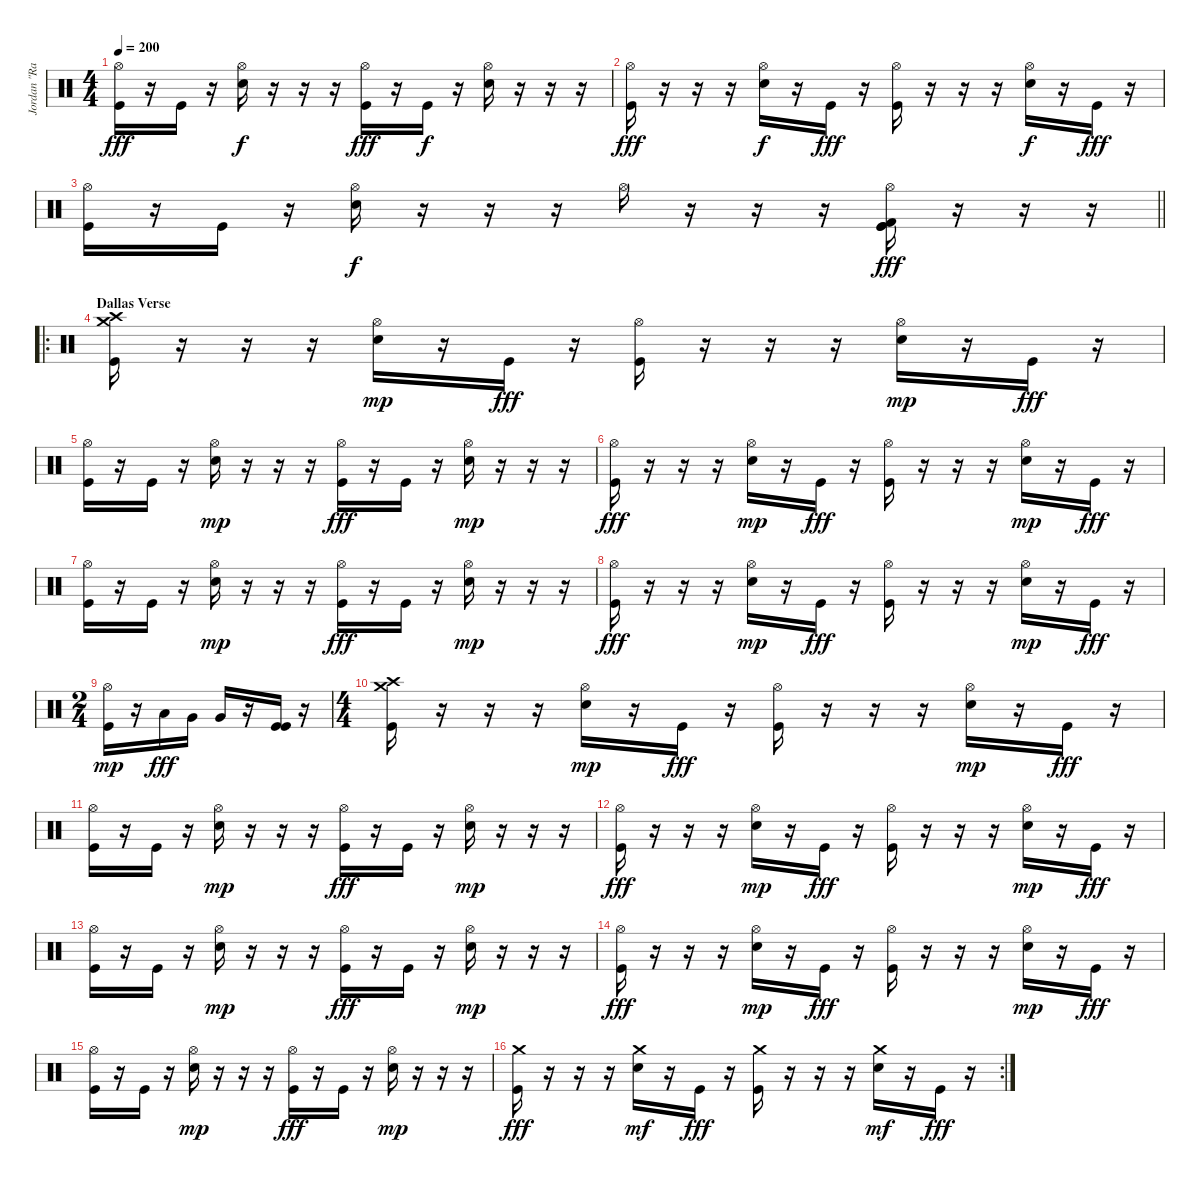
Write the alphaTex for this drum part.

\track ("Jordan \"Ratbeard\" Hastings" "Jordan \"Ra") {instrument percussion}
\staff {score}
\articulation defaults
\ts (4 4)
\tempo 200
\clef neutral
\ks c
("Hi-Hat (open)" "Kick (hit)").16{dy fff} r.16 "Kick (hit)".16 r.16 ("Hi-Hat (open)" "Electric Snare (hit)").16{dy f} r.16 r.16 r.16 ("Hi-Hat (open)" "Kick (hit)").16{dy fff} r.16 "Kick (hit)".16{dy f} r.16 ("Hi-Hat (open)" "Electric Snare (hit)").16 r.16 r.16 r.16 |
("Hi-Hat (open)" "Kick (hit)").16{dy fff} r.16 r.16 r.16 ("Hi-Hat (open)" "Electric Snare (hit)").16{dy f} r.16 "Kick (hit)".16{dy fff} r.16 ("Hi-Hat (open)" "Kick (hit)").16 r.16 r.16 r.16 ("Hi-Hat (open)" "Electric Snare (hit)").16{dy f} r.16 "Kick (hit)".16{dy fff} r.16 |
\barLineRight lightlight
("Hi-Hat (open)" "Kick (hit)").16 r.16 "Kick (hit)".16 r.16 ("Hi-Hat (open)" "Electric Snare (hit)").16{dy f} r.16 r.16 r.16 "Hi-Hat (open)".16 r.16 r.16 r.16 ("Hi-Hat (open)" "Kick (hit) 2" "Kick (hit)" "Kick (hit)").16{dy fff} r.16 r.16 r.16 |
\ro
\section ("" "Dallas Verse")
("Crash high (hit)" "Crash medium (hit)" "Kick (hit)").16 r.16 r.16 r.16 ("Hi-Hat (open)" "Electric Snare (hit)").16{dy mp} r.16 "Kick (hit)".16{dy fff} r.16 ("Hi-Hat (open)" "Kick (hit)").16 r.16 r.16 r.16 ("Hi-Hat (open)" "Electric Snare (hit)").16{dy mp} r.16 "Kick (hit)".16{dy fff} r.16 |
("Hi-Hat (open)" "Kick (hit)").16 r.16 "Kick (hit)".16 r.16 ("Hi-Hat (open)" "Electric Snare (hit)").16{dy mp} r.16 r.16 r.16 ("Hi-Hat (open)" "Kick (hit)").16{dy fff} r.16 "Kick (hit)".16 r.16 ("Hi-Hat (open)" "Electric Snare (hit)").16{dy mp} r.16 r.16 r.16 |
("Hi-Hat (open)" "Kick (hit)").16{dy fff} r.16 r.16 r.16 ("Hi-Hat (open)" "Electric Snare (hit)").16{dy mp} r.16 "Kick (hit)".16{dy fff} r.16 ("Hi-Hat (open)" "Kick (hit)").16 r.16 r.16 r.16 ("Hi-Hat (open)" "Electric Snare (hit)").16{dy mp} r.16 "Kick (hit)".16{dy fff} r.16 |
("Hi-Hat (open)" "Kick (hit)").16 r.16 "Kick (hit)".16 r.16 ("Hi-Hat (open)" "Electric Snare (hit)").16{dy mp} r.16 r.16 r.16 ("Hi-Hat (open)" "Kick (hit)").16{dy fff} r.16 "Kick (hit)".16 r.16 ("Hi-Hat (open)" "Electric Snare (hit)").16{dy mp} r.16 r.16 r.16 |
("Hi-Hat (open)" "Kick (hit)").16{dy fff} r.16 r.16 r.16 ("Hi-Hat (open)" "Electric Snare (hit)").16{dy mp} r.16 "Kick (hit)".16{dy fff} r.16 ("Hi-Hat (open)" "Kick (hit)").16 r.16 r.16 r.16 ("Hi-Hat (open)" "Electric Snare (hit)").16{dy mp} r.16 "Kick (hit)".16{dy fff} r.16 |
\ts (2 4)
("Hi-Hat (open)" "Kick (hit)").16{dy mp} r.16 "Low Tom (hit)".16{dy fff} "Very Low Tom (hit)".16 "Very Low Tom (hit)".16 r.16 ("Kick (hit)" "Kick (hit)").16 r.16 |
\ts (4 4)
("Crash medium (hit)" "Crash high (hit)" "Kick (hit)").16 r.16 r.16 r.16 ("Hi-Hat (open)" "Electric Snare (hit)").16{dy mp} r.16 "Kick (hit)".16{dy fff} r.16 ("Hi-Hat (open)" "Kick (hit)").16 r.16 r.16 r.16 ("Hi-Hat (open)" "Electric Snare (hit)").16{dy mp} r.16 "Kick (hit)".16{dy fff} r.16 |
("Hi-Hat (open)" "Kick (hit)").16 r.16 "Kick (hit)".16 r.16 ("Hi-Hat (open)" "Electric Snare (hit)").16{dy mp} r.16 r.16 r.16 ("Hi-Hat (open)" "Kick (hit)").16{dy fff} r.16 "Kick (hit)".16 r.16 ("Hi-Hat (open)" "Electric Snare (hit)").16{dy mp} r.16 r.16 r.16 |
("Hi-Hat (open)" "Kick (hit)").16{dy fff} r.16 r.16 r.16 ("Hi-Hat (open)" "Electric Snare (hit)").16{dy mp} r.16 "Kick (hit)".16{dy fff} r.16 ("Hi-Hat (open)" "Kick (hit)").16 r.16 r.16 r.16 ("Hi-Hat (open)" "Electric Snare (hit)").16{dy mp} r.16 "Kick (hit)".16{dy fff} r.16 |
("Hi-Hat (open)" "Kick (hit)").16 r.16 "Kick (hit)".16 r.16 ("Hi-Hat (open)" "Electric Snare (hit)").16{dy mp} r.16 r.16 r.16 ("Hi-Hat (open)" "Kick (hit)").16{dy fff} r.16 "Kick (hit)".16 r.16 ("Hi-Hat (open)" "Electric Snare (hit)").16{dy mp} r.16 r.16 r.16 |
("Hi-Hat (open)" "Kick (hit)").16{dy fff} r.16 r.16 r.16 ("Hi-Hat (open)" "Electric Snare (hit)").16{dy mp} r.16 "Kick (hit)".16{dy fff} r.16 ("Hi-Hat (open)" "Kick (hit)").16 r.16 r.16 r.16 ("Hi-Hat (open)" "Electric Snare (hit)").16{dy mp} r.16 "Kick (hit)".16{dy fff} r.16 |
("Hi-Hat (open)" "Kick (hit)").16 r.16 "Kick (hit)".16 r.16 ("Hi-Hat (open)" "Electric Snare (hit)").16{dy mp} r.16 r.16 r.16 ("Hi-Hat (open)" "Kick (hit)").16{dy fff} r.16 "Kick (hit)".16 r.16 ("Hi-Hat (open)" "Electric Snare (hit)").16{dy mp} r.16 r.16 r.16 |
\rc 2
("Crash medium (hit)" "Kick (hit)").16{dy fff} r.16 r.16 r.16 ("Crash medium (hit)" "Electric Snare (hit)").16{dy mf} r.16 "Kick (hit)".16{dy fff} r.16 ("Crash medium (hit)" "Kick (hit)").16 r.16 r.16 r.16 ("Crash medium (hit)" "Electric Snare (hit)").16{dy mf} r.16 "Kick (hit)".16{dy fff} r.16
